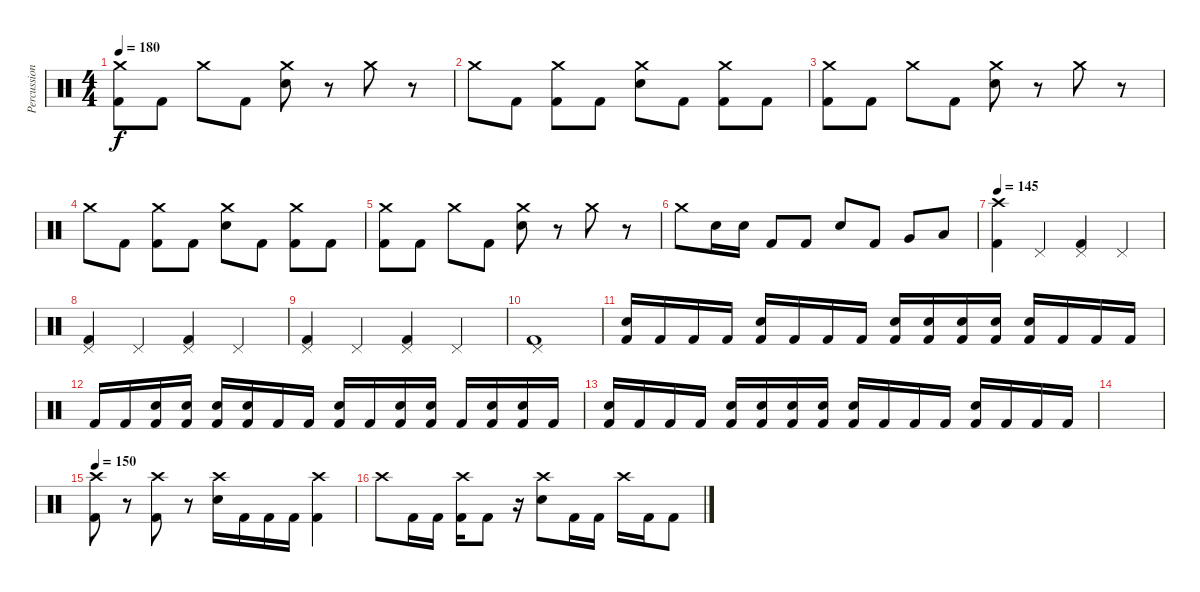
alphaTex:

\track ("Percussions" "Percussion") {instrument percussion}
\staff {score}
\articulation defaults
\ts (4 4)
\tempo 180
\clef neutral
\ks c
("Crash medium (hit)" "Kick (hit) 2").8{dy f} "Kick (hit) 2".8 "Crash medium (hit)".8 "Kick (hit) 2".8 ("Crash medium (hit)" "Electric Snare (hit)").8 r.8 "Crash medium (hit)".8 r.8 |
"Crash medium (hit)".8 "Kick (hit) 2".8 ("Crash medium (hit)" "Kick (hit) 2").8 "Kick (hit) 2".8 ("Crash medium (hit)" "Electric Snare (hit)").8 "Kick (hit) 2".8 ("Crash medium (hit)" "Kick (hit) 2").8 "Kick (hit) 2".8 |
("Crash medium (hit)" "Kick (hit) 2").8 "Kick (hit) 2".8 "Crash medium (hit)".8 "Kick (hit) 2".8 ("Crash medium (hit)" "Electric Snare (hit)").8 r.8 "Crash medium (hit)".8 r.8 |
"Crash medium (hit)".8 "Kick (hit) 2".8 ("Crash medium (hit)" "Kick (hit) 2").8 "Kick (hit) 2".8 ("Crash medium (hit)" "Electric Snare (hit)").8 "Kick (hit) 2".8 ("Crash medium (hit)" "Kick (hit) 2").8 "Kick (hit) 2".8 |
("Crash medium (hit)" "Kick (hit) 2").8 "Kick (hit) 2".8 "Crash medium (hit)".8 "Kick (hit) 2".8 ("Crash medium (hit)" "Electric Snare (hit)").8 r.8 "Crash medium (hit)".8 r.8 |
"Crash medium (hit)".8 "Electric Snare (hit)".16 "Electric Snare (hit)".16 "Kick (hit) 2".8 "Kick (hit) 2".8 "Electric Snare (hit)".8 "Kick (hit) 2".8 "Very Low Tom (hit)".8 "Low Floor Tom (hit)".8 |
\tempo 145
("Crash high (hit)" "Kick (hit) 2").4 "Pedal Hi-Hat (hit)".4 ("Pedal Hi-Hat (hit)" "Kick (hit) 2").4 "Pedal Hi-Hat (hit)".4 |
("Pedal Hi-Hat (hit)" "Kick (hit) 2").4 "Pedal Hi-Hat (hit)".4 ("Pedal Hi-Hat (hit)" "Kick (hit) 2").4 "Pedal Hi-Hat (hit)".4 |
("Pedal Hi-Hat (hit)" "Kick (hit) 2").4 "Pedal Hi-Hat (hit)".4 ("Pedal Hi-Hat (hit)" "Kick (hit) 2").4 "Pedal Hi-Hat (hit)".4 |
("Pedal Hi-Hat (hit)" "Kick (hit) 2").1 |
("Electric Snare (hit)" "Kick (hit) 2").16 "Kick (hit) 2".16 "Kick (hit) 2".16 "Kick (hit) 2".16 ("Electric Snare (hit)" "Kick (hit) 2").16 "Kick (hit) 2".16 "Kick (hit) 2".16 "Kick (hit) 2".16 ("Electric Snare (hit)" "Kick (hit) 2").16 ("Electric Snare (hit)" "Kick (hit) 2").16 ("Electric Snare (hit)" "Kick (hit) 2").16 ("Electric Snare (hit)" "Kick (hit) 2").16 ("Electric Snare (hit)" "Kick (hit) 2").16 "Kick (hit) 2".16 "Kick (hit) 2".16 "Kick (hit) 2".16 |
"Kick (hit) 2".16 "Kick (hit) 2".16 ("Electric Snare (hit)" "Kick (hit) 2").16 ("Electric Snare (hit)" "Kick (hit) 2").16 ("Electric Snare (hit)" "Kick (hit) 2").16 ("Electric Snare (hit)" "Kick (hit) 2").16 "Kick (hit) 2".16 "Kick (hit) 2".16 ("Electric Snare (hit)" "Kick (hit) 2").16 "Kick (hit) 2".16 ("Electric Snare (hit)" "Kick (hit) 2").16 ("Electric Snare (hit)" "Kick (hit) 2").16 "Kick (hit) 2".16 ("Electric Snare (hit)" "Kick (hit) 2").16 ("Electric Snare (hit)" "Kick (hit) 2").16 "Kick (hit) 2".16 |
("Electric Snare (hit)" "Kick (hit) 2").16 "Kick (hit) 2".16 "Kick (hit) 2".16 "Kick (hit) 2".16 ("Electric Snare (hit)" "Kick (hit) 2").16 ("Electric Snare (hit)" "Kick (hit) 2").16 ("Electric Snare (hit)" "Kick (hit) 2").16 ("Electric Snare (hit)" "Kick (hit) 2").16 ("Electric Snare (hit)" "Kick (hit) 2").16 "Kick (hit) 2".16 "Kick (hit) 2".16 "Kick (hit) 2".16 ("Electric Snare (hit)" "Kick (hit) 2").16 "Kick (hit) 2".16 "Kick (hit) 2".16 "Kick (hit) 2".16 |
|
\tempo 150
("Crash high (hit)" "Kick (hit) 2").8 r.8 ("Crash high (hit)" "Kick (hit) 2").8 r.8 ("Crash high (hit)" "Electric Snare (hit)").16 "Kick (hit) 2".16 "Kick (hit) 2".16 "Kick (hit) 2".16 ("Crash high (hit)" "Kick (hit) 2").4 |
"Crash high (hit)".8 "Kick (hit) 2".16 "Kick (hit) 2".16 ("Crash high (hit)" "Kick (hit) 2").16 "Kick (hit) 2".8 r.16 ("Crash high (hit)" "Electric Snare (hit)").8 "Kick (hit) 2".16 "Kick (hit) 2".16 "Crash high (hit)".16 "Kick (hit) 2".16 "Kick (hit) 2".8
